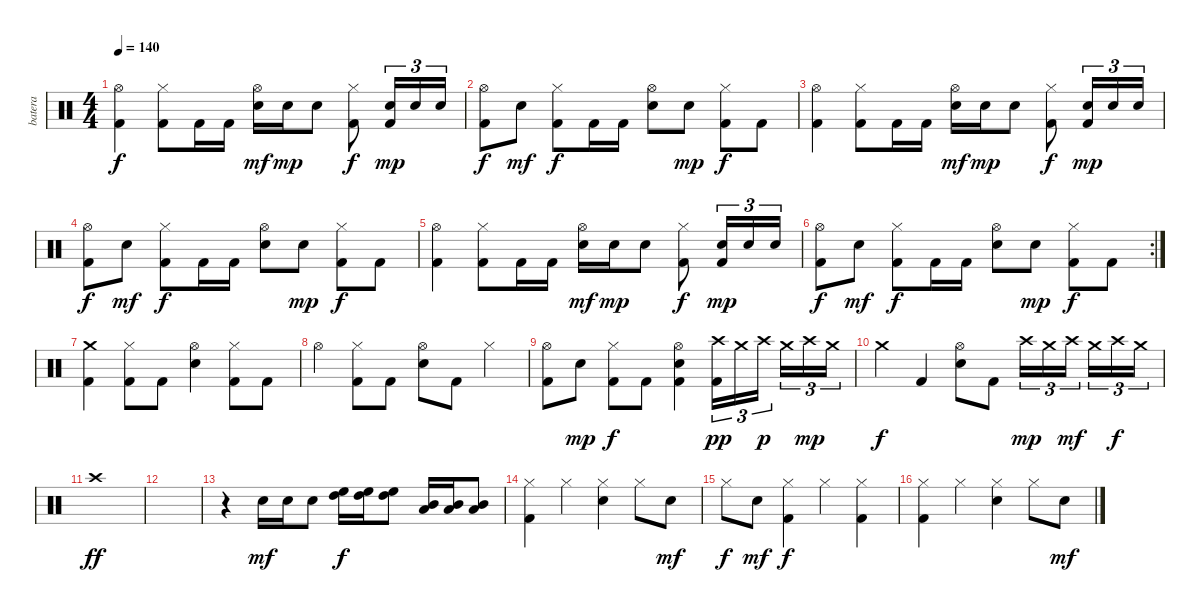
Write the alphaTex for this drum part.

\track ("batera" "batera") {instrument percussion}
\staff {score}
\articulation defaults
\ts (4 4)
\tempo 140
\clef neutral
\ks c
("Hi-Hat (open)" "Kick (hit) 2").4{dy f} ("Hi-Hat (closed)" "Kick (hit) 2").8 "Kick (hit) 2".16 "Kick (hit) 2".16 ("Hi-Hat (open)" "Electric Snare (hit)").16{dy mf} "Electric Snare (hit)".16{dy mp} "Electric Snare (hit)".8 ("Hi-Hat (closed)" "Kick (hit) 2").8{dy f} ("Electric Snare (hit)" "Kick (hit) 2").16{tu (3 2) dy mp} "Electric Snare (hit)".16{tu (3 2)} "Electric Snare (hit)".16{tu (3 2)} |
("Hi-Hat (open)" "Kick (hit) 2").8{dy f} "Electric Snare (hit)".8{dy mf} ("Hi-Hat (closed)" "Kick (hit) 2").8{dy f} "Kick (hit) 2".16 "Kick (hit) 2".16 ("Hi-Hat (open)" "Electric Snare (hit)").8 "Electric Snare (hit)".8{dy mp} ("Hi-Hat (closed)" "Kick (hit) 2").8{dy f} "Kick (hit) 2".8 |
("Hi-Hat (open)" "Kick (hit) 2").4 ("Hi-Hat (closed)" "Kick (hit) 2").8 "Kick (hit) 2".16 "Kick (hit) 2".16 ("Hi-Hat (open)" "Electric Snare (hit)").16{dy mf} "Electric Snare (hit)".16{dy mp} "Electric Snare (hit)".8 ("Hi-Hat (closed)" "Kick (hit) 2").8{dy f} ("Electric Snare (hit)" "Kick (hit) 2").16{tu (3 2) dy mp} "Electric Snare (hit)".16{tu (3 2)} "Electric Snare (hit)".16{tu (3 2)} |
("Hi-Hat (open)" "Kick (hit) 2").8{dy f} "Electric Snare (hit)".8{dy mf} ("Hi-Hat (closed)" "Kick (hit) 2").8{dy f} "Kick (hit) 2".16 "Kick (hit) 2".16 ("Hi-Hat (open)" "Electric Snare (hit)").8 "Electric Snare (hit)".8{dy mp} ("Hi-Hat (closed)" "Kick (hit) 2").8{dy f} "Kick (hit) 2".8 |
("Hi-Hat (open)" "Kick (hit) 2").4 ("Hi-Hat (closed)" "Kick (hit) 2").8 "Kick (hit) 2".16 "Kick (hit) 2".16 ("Hi-Hat (open)" "Electric Snare (hit)").16{dy mf} "Electric Snare (hit)".16{dy mp} "Electric Snare (hit)".8 ("Hi-Hat (closed)" "Kick (hit) 2").8{dy f} ("Electric Snare (hit)" "Kick (hit) 2").16{tu (3 2) dy mp} "Electric Snare (hit)".16{tu (3 2)} "Electric Snare (hit)".16{tu (3 2)} |
\rc 2
("Hi-Hat (open)" "Kick (hit) 2").8{dy f} "Electric Snare (hit)".8{dy mf} ("Hi-Hat (closed)" "Kick (hit) 2").8{dy f} "Kick (hit) 2".16 "Kick (hit) 2".16 ("Hi-Hat (open)" "Electric Snare (hit)").8 "Electric Snare (hit)".8{dy mp} ("Hi-Hat (closed)" "Kick (hit) 2").8{dy f} "Kick (hit) 2".8 |
("Crash medium (hit)" "Kick (hit) 2").4 ("Hi-Hat (closed)" "Kick (hit) 2").8 "Kick (hit) 2".8 ("Hi-Hat (open)" "Electric Snare (hit)").4 ("Hi-Hat (closed)" "Kick (hit) 2").8 "Kick (hit) 2".8 |
"Hi-Hat (open)".4 ("Hi-Hat (closed)" "Kick (hit) 2").8 "Kick (hit) 2".8 ("Hi-Hat (open)" "Electric Snare (hit)").8 "Kick (hit) 2".8 "Hi-Hat (closed)".4 |
("Hi-Hat (open)" "Kick (hit) 2").8 "Electric Snare (hit)".8{dy mp} ("Hi-Hat (closed)" "Kick (hit) 2").8{dy f} "Kick (hit) 2".8 ("Hi-Hat (open)" "Electric Snare (hit)" "Kick (hit) 2").4 ("Crash high (hit)" "Kick (hit) 2").16{tu (3 2) dy pp} "Crash medium (hit)".16{tu (3 2)} "Crash high (hit)".16{tu (3 2) dy p} "Crash medium (hit)".16{tu (3 2)} "Crash high (hit)".16{tu (3 2) dy mp} "Crash medium (hit)".16{tu (3 2)} |
"Crash medium (hit)".4{dy f} "Kick (hit) 2".4 ("Hi-Hat (open)" "Electric Snare (hit)").8 "Kick (hit) 2".8 "Crash high (hit)".16{tu (3 2) dy mp} "Crash medium (hit)".16{tu (3 2)} "Crash high (hit)".16{tu (3 2) dy mf} "Crash medium (hit)".16{tu (3 2)} "Crash high (hit)".16{tu (3 2) dy f} "Crash medium (hit)".16{tu (3 2)} |
"Crash high (hit)".1{dy ff} |
|
r.4 "Electric Snare (hit)".16{dy mf} "Electric Snare (hit)".16 "Electric Snare (hit)".8 ("High Floor Tom (hit)" "High Tom (hit)").16{dy f} ("High Floor Tom (hit)" "High Tom (hit)").16 ("High Floor Tom (hit)" "High Tom (hit)").8 ("Low Tom (hit)" "Mid Tom (hit)").16 ("Low Tom (hit)" "Mid Tom (hit)").16 ("Low Tom (hit)" "Mid Tom (hit)").8 |
("Hi-Hat (closed)" "Kick (hit) 2").4 "Hi-Hat (closed)".4 ("Hi-Hat (closed)" "Electric Snare (hit)").4 "Hi-Hat (closed)".8 "Electric Snare (hit)".8{dy mf} |
"Hi-Hat (closed)".8{dy f} "Electric Snare (hit)".8{dy mf} ("Hi-Hat (closed)" "Kick (hit) 2").4{dy f} "Hi-Hat (closed)".4 ("Hi-Hat (closed)" "Kick (hit) 2").4 |
("Hi-Hat (closed)" "Kick (hit) 2").4 "Hi-Hat (closed)".4 ("Hi-Hat (closed)" "Electric Snare (hit)").4 "Hi-Hat (closed)".8 "Electric Snare (hit)".8{dy mf}
